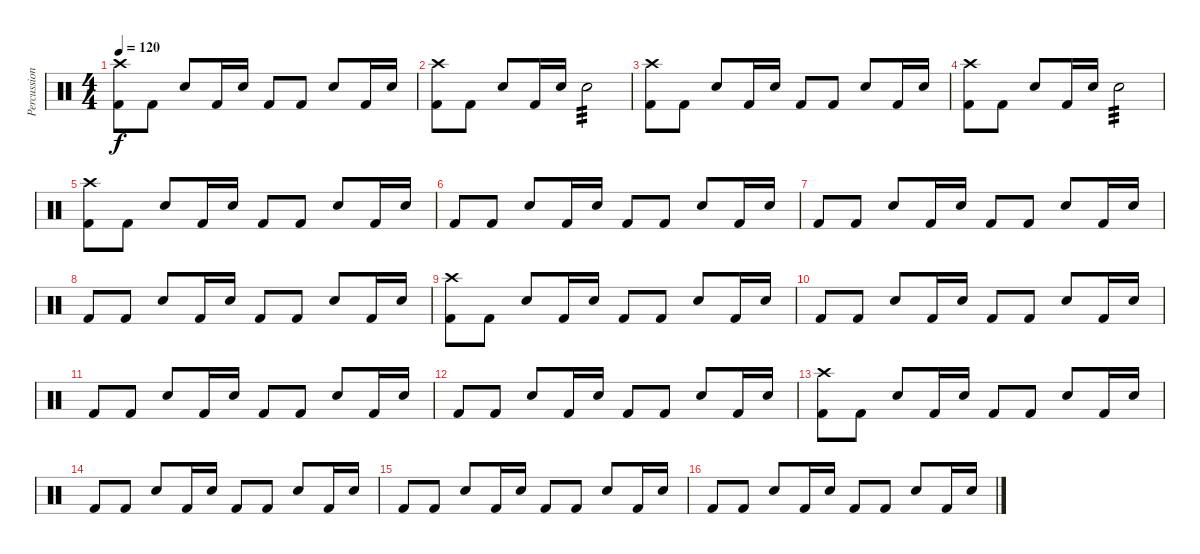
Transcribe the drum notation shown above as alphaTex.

\track ("Percussion" "Percussion") {instrument percussion}
\staff {score}
\articulation defaults
\ts (4 4)
\tempo 120
\clef neutral
\ks c
("Crash high (hit)" "Kick (hit) 2").8{dy f} "Kick (hit) 2".8 "Electric Snare (hit)".8 "Kick (hit) 2".16 "Electric Snare (hit)".16 "Kick (hit) 2".8 "Kick (hit) 2".8 "Electric Snare (hit)".8 "Kick (hit) 2".16 "Electric Snare (hit)".16 |
("Crash high (hit)" "Kick (hit) 2").8 "Kick (hit) 2".8 "Electric Snare (hit)".8 "Kick (hit) 2".16 "Electric Snare (hit)".16 "Electric Snare (hit)".2{tp 3} |
("Crash high (hit)" "Kick (hit) 2").8 "Kick (hit) 2".8 "Electric Snare (hit)".8 "Kick (hit) 2".16 "Electric Snare (hit)".16 "Kick (hit) 2".8 "Kick (hit) 2".8 "Electric Snare (hit)".8 "Kick (hit) 2".16 "Electric Snare (hit)".16 |
("Crash high (hit)" "Kick (hit) 2").8 "Kick (hit) 2".8 "Electric Snare (hit)".8 "Kick (hit) 2".16 "Electric Snare (hit)".16 "Electric Snare (hit)".2{tp 3} |
("Crash high (hit)" "Kick (hit) 2").8 "Kick (hit) 2".8 "Electric Snare (hit)".8 "Kick (hit) 2".16 "Electric Snare (hit)".16 "Kick (hit) 2".8 "Kick (hit) 2".8 "Electric Snare (hit)".8 "Kick (hit) 2".16 "Electric Snare (hit)".16 |
"Kick (hit) 2".8 "Kick (hit) 2".8 "Electric Snare (hit)".8 "Kick (hit) 2".16 "Electric Snare (hit)".16 "Kick (hit) 2".8 "Kick (hit) 2".8 "Electric Snare (hit)".8 "Kick (hit) 2".16 "Electric Snare (hit)".16 |
"Kick (hit) 2".8 "Kick (hit) 2".8 "Electric Snare (hit)".8 "Kick (hit) 2".16 "Electric Snare (hit)".16 "Kick (hit) 2".8 "Kick (hit) 2".8 "Electric Snare (hit)".8 "Kick (hit) 2".16 "Electric Snare (hit)".16 |
"Kick (hit) 2".8 "Kick (hit) 2".8 "Electric Snare (hit)".8 "Kick (hit) 2".16 "Electric Snare (hit)".16 "Kick (hit) 2".8 "Kick (hit) 2".8 "Electric Snare (hit)".8 "Kick (hit) 2".16 "Electric Snare (hit)".16 |
("Crash high (hit)" "Kick (hit) 2").8 "Kick (hit) 2".8 "Electric Snare (hit)".8 "Kick (hit) 2".16 "Electric Snare (hit)".16 "Kick (hit) 2".8 "Kick (hit) 2".8 "Electric Snare (hit)".8 "Kick (hit) 2".16 "Electric Snare (hit)".16 |
"Kick (hit) 2".8 "Kick (hit) 2".8 "Electric Snare (hit)".8 "Kick (hit) 2".16 "Electric Snare (hit)".16 "Kick (hit) 2".8 "Kick (hit) 2".8 "Electric Snare (hit)".8 "Kick (hit) 2".16 "Electric Snare (hit)".16 |
"Kick (hit) 2".8 "Kick (hit) 2".8 "Electric Snare (hit)".8 "Kick (hit) 2".16 "Electric Snare (hit)".16 "Kick (hit) 2".8 "Kick (hit) 2".8 "Electric Snare (hit)".8 "Kick (hit) 2".16 "Electric Snare (hit)".16 |
"Kick (hit) 2".8 "Kick (hit) 2".8 "Electric Snare (hit)".8 "Kick (hit) 2".16 "Electric Snare (hit)".16 "Kick (hit) 2".8 "Kick (hit) 2".8 "Electric Snare (hit)".8 "Kick (hit) 2".16 "Electric Snare (hit)".16 |
("Crash high (hit)" "Kick (hit) 2").8 "Kick (hit) 2".8 "Electric Snare (hit)".8 "Kick (hit) 2".16 "Electric Snare (hit)".16 "Kick (hit) 2".8 "Kick (hit) 2".8 "Electric Snare (hit)".8 "Kick (hit) 2".16 "Electric Snare (hit)".16 |
"Kick (hit) 2".8 "Kick (hit) 2".8 "Electric Snare (hit)".8 "Kick (hit) 2".16 "Electric Snare (hit)".16 "Kick (hit) 2".8 "Kick (hit) 2".8 "Electric Snare (hit)".8 "Kick (hit) 2".16 "Electric Snare (hit)".16 |
"Kick (hit) 2".8 "Kick (hit) 2".8 "Electric Snare (hit)".8 "Kick (hit) 2".16 "Electric Snare (hit)".16 "Kick (hit) 2".8 "Kick (hit) 2".8 "Electric Snare (hit)".8 "Kick (hit) 2".16 "Electric Snare (hit)".16 |
"Kick (hit) 2".8 "Kick (hit) 2".8 "Electric Snare (hit)".8 "Kick (hit) 2".16 "Electric Snare (hit)".16 "Kick (hit) 2".8 "Kick (hit) 2".8 "Electric Snare (hit)".8 "Kick (hit) 2".16 "Electric Snare (hit)".16
